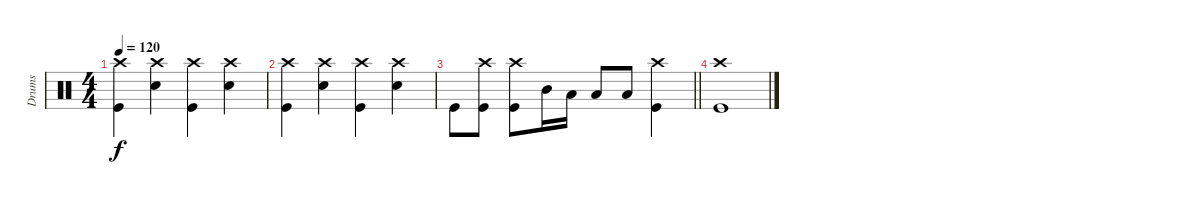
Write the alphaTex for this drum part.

\track ("Drums" "Drums") {instrument percussion}
\staff {score}
\articulation defaults
\ts (4 4)
\tempo 120
\clef neutral
\ks c
("Crash high (hit)" "Kick (hit)").4{dy f} ("Crash high (hit)" "Snare (hit) 2").4 ("Crash high (hit)" "Kick (hit)").4 ("Crash high (hit)" "Snare (hit) 2").4 |
("Crash high (hit)" "Kick (hit)").4 ("Crash high (hit)" "Snare (hit) 2").4 ("Crash high (hit)" "Kick (hit)").4 ("Crash high (hit)" "Snare (hit) 2").4 |
\barLineRight lightlight "Kick (hit)".8
("Crash high (hit)" "Kick (hit)").8 ("Crash high (hit)" "Kick (hit)").8 "Mid Tom (hit)".16 "Low Tom (hit)".16 "Low Floor Tom (hit)".8 "Low Floor Tom (hit)".8 ("Crash high (hit)" "Kick (hit)").4 |
("Crash high (hit)" "Kick (hit)").1
